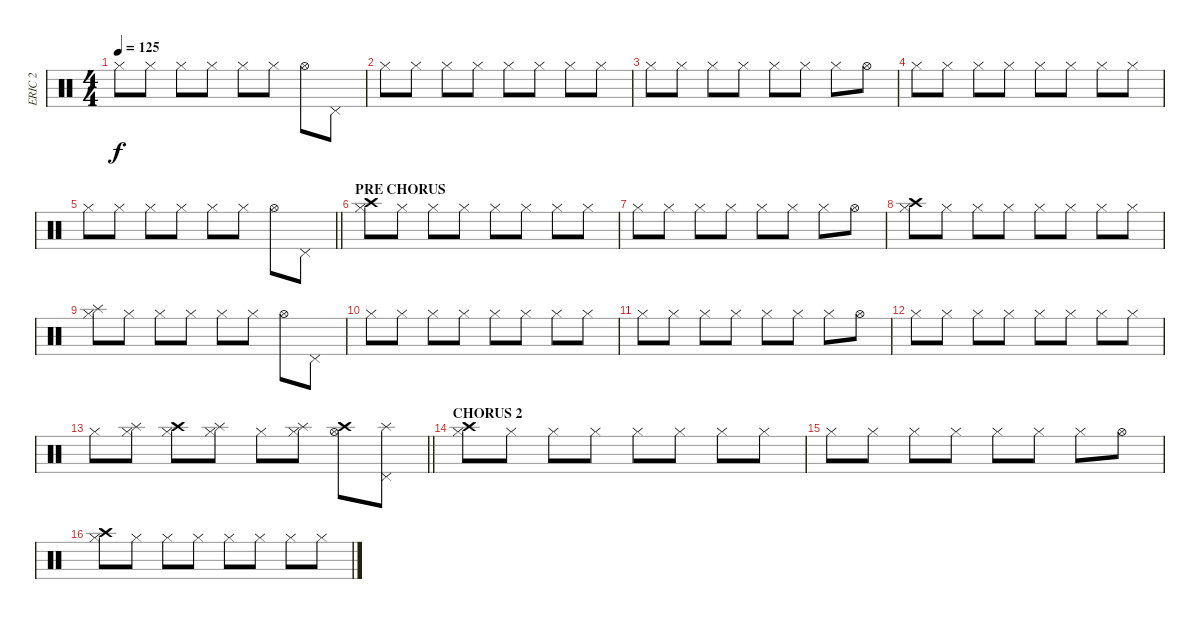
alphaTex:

\track ("ERIC 2" "ERIC 2") {instrument percussion}
\staff {score}
\articulation defaults
\ts (4 4)
\tempo 125
\clef neutral
\ks c "Hi-Hat (closed)".8{dy f} "Hi-Hat (closed)".8 "Hi-Hat (closed)".8 "Hi-Hat (closed)".8 "Hi-Hat (closed)".8 "Hi-Hat (closed)".8 "Hi-Hat (open)".8 "Pedal Hi-Hat (hit)".8
|
"Hi-Hat (closed)".8 "Hi-Hat (closed)".8 "Hi-Hat (closed)".8 "Hi-Hat (closed)".8 "Hi-Hat (closed)".8 "Hi-Hat (closed)".8 "Hi-Hat (closed)".8 "Hi-Hat (closed)".8 |
"Hi-Hat (closed)".8 "Hi-Hat (closed)".8 "Hi-Hat (closed)".8 "Hi-Hat (closed)".8 "Hi-Hat (closed)".8 "Hi-Hat (closed)".8 "Hi-Hat (closed)".8 "Hi-Hat (open)".8 |
"Hi-Hat (closed)".8 "Hi-Hat (closed)".8 "Hi-Hat (closed)".8 "Hi-Hat (closed)".8 "Hi-Hat (closed)".8 "Hi-Hat (closed)".8 "Hi-Hat (closed)".8 "Hi-Hat (closed)".8 |
\barLineRight lightlight "Hi-Hat (closed)".8 "Hi-Hat (closed)".8 "Hi-Hat (closed)".8 "Hi-Hat (closed)".8 "Hi-Hat (closed)".8 "Hi-Hat (closed)".8 "Hi-Hat (open)".8 "Pedal Hi-Hat (hit)".8
|
\section ("" "PRE CHORUS")
("Crash high (hit)" "Hi-Hat (closed)").8 "Hi-Hat (closed)".8 "Hi-Hat (closed)".8 "Hi-Hat (closed)".8 "Hi-Hat (closed)".8 "Hi-Hat (closed)".8 "Hi-Hat (closed)".8 "Hi-Hat (closed)".8 |
"Hi-Hat (closed)".8 "Hi-Hat (closed)".8 "Hi-Hat (closed)".8 "Hi-Hat (closed)".8 "Hi-Hat (closed)".8 "Hi-Hat (closed)".8 "Hi-Hat (closed)".8 "Hi-Hat (open)".8 |
("Crash high (hit)" "Hi-Hat (closed)").8 "Hi-Hat (closed)".8 "Hi-Hat (closed)".8 "Hi-Hat (closed)".8 "Hi-Hat (closed)".8 "Hi-Hat (closed)".8 "Hi-Hat (closed)".8 "Hi-Hat (closed)".8 |
("Splash (hit)" "Hi-Hat (closed)").8 "Hi-Hat (closed)".8 "Hi-Hat (closed)".8 "Hi-Hat (closed)".8 "Hi-Hat (closed)".8 "Hi-Hat (closed)".8 "Hi-Hat (open)".8 "Pedal Hi-Hat (hit)".8 |
"Hi-Hat (closed)".8 "Hi-Hat (closed)".8 "Hi-Hat (closed)".8 "Hi-Hat (closed)".8 "Hi-Hat (closed)".8 "Hi-Hat (closed)".8 "Hi-Hat (closed)".8 "Hi-Hat (closed)".8 |
"Hi-Hat (closed)".8 "Hi-Hat (closed)".8 "Hi-Hat (closed)".8 "Hi-Hat (closed)".8 "Hi-Hat (closed)".8 "Hi-Hat (closed)".8 "Hi-Hat (closed)".8 "Hi-Hat (open)".8 |
"Hi-Hat (closed)".8 "Hi-Hat (closed)".8 "Hi-Hat (closed)".8 "Hi-Hat (closed)".8 "Hi-Hat (closed)".8 "Hi-Hat (closed)".8 "Hi-Hat (closed)".8 "Hi-Hat (closed)".8 |
\barLineRight lightlight "Hi-Hat (closed)".8
("Splash (hit)" "Hi-Hat (closed)").8 ("Crash high (hit)" "Hi-Hat (closed)").8 ("Splash (hit)" "Hi-Hat (closed)").8 "Hi-Hat (closed)".8 ("Splash (hit)" "Hi-Hat (closed)").8 ("Crash high (hit)" "Hi-Hat (open)").8 ("Splash (hit)" "Pedal Hi-Hat (hit)").8 |
\section ("" "CHORUS 2")
("Crash high (hit)" "Hi-Hat (closed)").8 "Hi-Hat (closed)".8 "Hi-Hat (closed)".8 "Hi-Hat (closed)".8 "Hi-Hat (closed)".8 "Hi-Hat (closed)".8 "Hi-Hat (closed)".8 "Hi-Hat (closed)".8 |
"Hi-Hat (closed)".8 "Hi-Hat (closed)".8 "Hi-Hat (closed)".8 "Hi-Hat (closed)".8 "Hi-Hat (closed)".8 "Hi-Hat (closed)".8 "Hi-Hat (closed)".8 "Hi-Hat (open)".8 |
("Crash high (hit)" "Hi-Hat (closed)").8 "Hi-Hat (closed)".8 "Hi-Hat (closed)".8 "Hi-Hat (closed)".8 "Hi-Hat (closed)".8 "Hi-Hat (closed)".8 "Hi-Hat (closed)".8 "Hi-Hat (closed)".8
